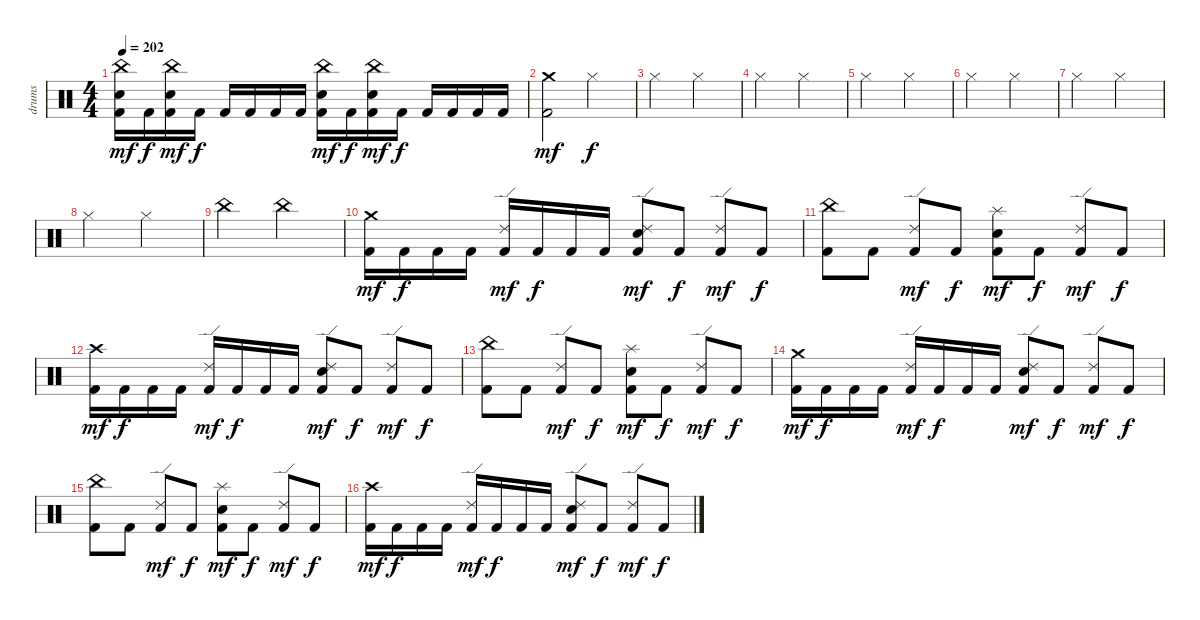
\track ("drums" "drums") {instrument percussion}
\staff {score}
\articulation defaults
\ts (4 4)
\tempo 202
\clef neutral
\ks c
("China (hit)" "Snare (hit) 2" "Kick (hit) 2").16{dy mf} "Kick (hit) 2".16{dy f} ("China (hit)" "Snare (hit) 2" "Kick (hit) 2").16{dy mf} "Kick (hit) 2".16{dy f} "Kick (hit) 2".16 "Kick (hit) 2".16 "Kick (hit) 2".16 "Kick (hit) 2".16 ("China (hit)" "Snare (hit) 2" "Kick (hit) 2").16{dy mf} "Kick (hit) 2".16{dy f} ("China (hit)" "Snare (hit) 2" "Kick (hit) 2").16{dy mf} "Kick (hit) 2".16{dy f} "Kick (hit) 2".16 "Kick (hit) 2".16 "Kick (hit) 2".16 "Kick (hit) 2".16 |
("Crash medium (hit)" "Kick (hit) 2").2{dy mf} "Hi-Hat (closed)".2{dy f} |
"Hi-Hat (closed)".2 "Hi-Hat (closed)".2 |
"Hi-Hat (closed)".2 "Hi-Hat (closed)".2 |
"Hi-Hat (closed)".2 "Hi-Hat (closed)".2 |
"Hi-Hat (closed)".2 "Hi-Hat (closed)".2 |
"Hi-Hat (closed)".2 "Hi-Hat (closed)".2 |
"Hi-Hat (closed)".2 "Hi-Hat (closed)".2 |
"China (hit)".2 "China (hit)".2 |
("Crash medium (hit)" "Kick (hit) 2").16{dy mf} "Kick (hit) 2".16{dy f} "Kick (hit) 2".16 "Kick (hit) 2".16 ("Ride (edge) 2" "Kick (hit) 2").16{dy mf} "Kick (hit) 2".16{dy f} "Kick (hit) 2".16 "Kick (hit) 2".16 ("Ride (edge) 2" "Snare (hit) 2" "Kick (hit) 2").8{dy mf} "Kick (hit) 2".8{dy f} ("Ride (edge) 2" "Kick (hit) 2").8{dy mf} "Kick (hit) 2".8{dy f} |
("China (hit)" "Kick (hit) 2").8 "Kick (hit) 2".8 ("Ride (edge) 2" "Kick (hit) 2").8{dy mf} "Kick (hit) 2".8{dy f} ("Splash (hit)" "Snare (hit) 2" "Kick (hit) 2").8{dy mf} "Kick (hit) 2".8{dy f} ("Ride (edge) 2" "Kick (hit) 2").8{dy mf} "Kick (hit) 2".8{dy f} |
("Crash high (hit)" "Kick (hit) 2").16{dy mf} "Kick (hit) 2".16{dy f} "Kick (hit) 2".16 "Kick (hit) 2".16 ("Ride (edge) 2" "Kick (hit) 2").16{dy mf} "Kick (hit) 2".16{dy f} "Kick (hit) 2".16 "Kick (hit) 2".16 ("Ride (edge) 2" "Snare (hit) 2" "Kick (hit) 2").8{dy mf} "Kick (hit) 2".8{dy f} ("Ride (edge) 2" "Kick (hit) 2").8{dy mf} "Kick (hit) 2".8{dy f} |
("China (hit)" "Kick (hit) 2").8 "Kick (hit) 2".8 ("Ride (edge) 2" "Kick (hit) 2").8{dy mf} "Kick (hit) 2".8{dy f} ("Splash (hit)" "Snare (hit) 2" "Kick (hit) 2").8{dy mf} "Kick (hit) 2".8{dy f} ("Ride (edge) 2" "Kick (hit) 2").8{dy mf} "Kick (hit) 2".8{dy f} |
("Crash medium (hit)" "Kick (hit) 2").16{dy mf} "Kick (hit) 2".16{dy f} "Kick (hit) 2".16 "Kick (hit) 2".16 ("Ride (edge) 2" "Kick (hit) 2").16{dy mf} "Kick (hit) 2".16{dy f} "Kick (hit) 2".16 "Kick (hit) 2".16 ("Ride (edge) 2" "Snare (hit) 2" "Kick (hit) 2").8{dy mf} "Kick (hit) 2".8{dy f} ("Ride (edge) 2" "Kick (hit) 2").8{dy mf} "Kick (hit) 2".8{dy f} |
("China (hit)" "Kick (hit) 2").8 "Kick (hit) 2".8 ("Ride (edge) 2" "Kick (hit) 2").8{dy mf} "Kick (hit) 2".8{dy f} ("Splash (hit)" "Snare (hit) 2" "Kick (hit) 2").8{dy mf} "Kick (hit) 2".8{dy f} ("Ride (edge) 2" "Kick (hit) 2").8{dy mf} "Kick (hit) 2".8{dy f} |
("Crash high (hit)" "Kick (hit) 2").16{dy mf} "Kick (hit) 2".16{dy f} "Kick (hit) 2".16 "Kick (hit) 2".16 ("Ride (edge) 2" "Kick (hit) 2").16{dy mf} "Kick (hit) 2".16{dy f} "Kick (hit) 2".16 "Kick (hit) 2".16 ("Ride (edge) 2" "Snare (hit) 2" "Kick (hit) 2").8{dy mf} "Kick (hit) 2".8{dy f} ("Ride (edge) 2" "Kick (hit) 2").8{dy mf} "Kick (hit) 2".8{dy f}
